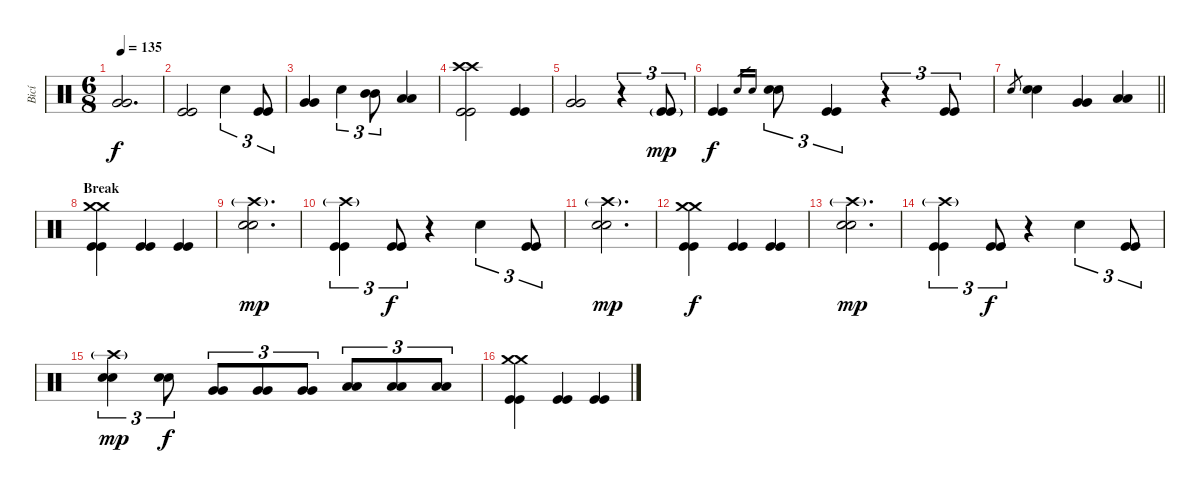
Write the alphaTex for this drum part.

\track ("Bicí" "Bicí") {instrument percussion}
\staff {score}
\articulation defaults
\ts (6 8)
\tempo 135
\clef neutral
\ks c
("Very Low Tom (hit)" "Very Low Tom (hit)").2{d dy f} |
("Kick (hit)" "Kick (hit)").2 "Snare (hit)".4{tu (3 2)} ("Kick (hit)" "Kick (hit)").8{tu (3 2)} |
("Very Low Tom (hit)" "Very Low Tom (hit)").4 "Snare (hit)".4{tu (3 2)} ("Mid Tom (hit)" "Mid Tom (hit)").8{tu (3 2)} ("Low Floor Tom (hit)" "Low Floor Tom (hit)").4 |
("Crash high (hit)" "Crash high (hit)" "Kick (hit)" "Kick (hit)").2 ("Kick (hit)" "Kick (hit)").4 |
("Very Low Tom (hit)" "Very Low Tom (hit)").2 r.4{tu (3 2)} ("Kick (hit)"{g} "Kick (hit)").8{tu (3 2) dy mp} |
("Kick (hit)" "Kick (hit)").4{dy f} "Electric Snare (hit)".16{gr} "Electric Snare (hit)".16{gr} ("Electric Snare (hit)" "Electric Snare (hit)").8{tu (3 2)} ("Kick (hit)" "Kick (hit)").4{tu (3 2)} r.4{tu (3 2)} ("Kick (hit)" "Kick (hit)").8{tu (3 2)} |
\barLineRight lightlight "Electric Snare (hit)".8{gr}
("Electric Snare (hit)" "Electric Snare (hit)").4 ("Very Low Tom (hit)" "Very Low Tom (hit)").4 ("Low Tom (hit)" "Low Tom (hit)").4 |
\section ("" "Break")
("Crash medium (hit)" "Crash medium (hit)" "Kick (hit)" "Kick (hit)").4 ("Kick (hit)" "Kick (hit)").4 ("Kick (hit)" "Kick (hit)").4 |
("Crash high (hit)"{g} "Electric Snare (hit)" "Electric Snare (hit)").2{d dy mp} |
("Crash high (hit)"{g} "Kick (hit)" "Kick (hit)").4{tu (3 2)} ("Kick (hit)" "Kick (hit)").8{tu (3 2) dy f} r.4 "Snare (hit)".4{tu (3 2)} ("Kick (hit)" "Kick (hit)").8{tu (3 2)} |
("Crash high (hit)"{g} "Electric Snare (hit)" "Electric Snare (hit)").2{d dy mp} |
("Crash medium (hit)" "Crash medium (hit)" "Kick (hit)" "Kick (hit)").4{dy f} ("Kick (hit)" "Kick (hit)").4 ("Kick (hit)" "Kick (hit)").4 |
("Crash high (hit)"{g} "Electric Snare (hit)" "Electric Snare (hit)").2{d dy mp} |
("Crash high (hit)"{g} "Kick (hit)" "Kick (hit)").4{tu (3 2)} ("Kick (hit)" "Kick (hit)").8{tu (3 2) dy f} r.4 "Snare (hit)".4{tu (3 2)} ("Kick (hit)" "Kick (hit)").8{tu (3 2)} |
("Crash high (hit)"{g} "Electric Snare (hit)" "Electric Snare (hit)").4{tu (3 2) dy mp} ("Electric Snare (hit)" "Electric Snare (hit)").8{tu (3 2) dy f} ("Very Low Tom (hit)" "Very Low Tom (hit)").8{tu (3 2)} ("Very Low Tom (hit)" "Very Low Tom (hit)").8{tu (3 2)} ("Very Low Tom (hit)" "Very Low Tom (hit)").8{tu (3 2)} ("Low Tom (hit)" "Low Tom (hit)").8{tu (3 2)} ("Low Tom (hit)" "Low Tom (hit)").8{tu (3 2)} ("Low Tom (hit)" "Low Tom (hit)").8{tu (3 2)} |
("Crash medium (hit)" "Crash medium (hit)" "Kick (hit)" "Kick (hit)").4 ("Kick (hit)" "Kick (hit)").4 ("Kick (hit)" "Kick (hit)").4
